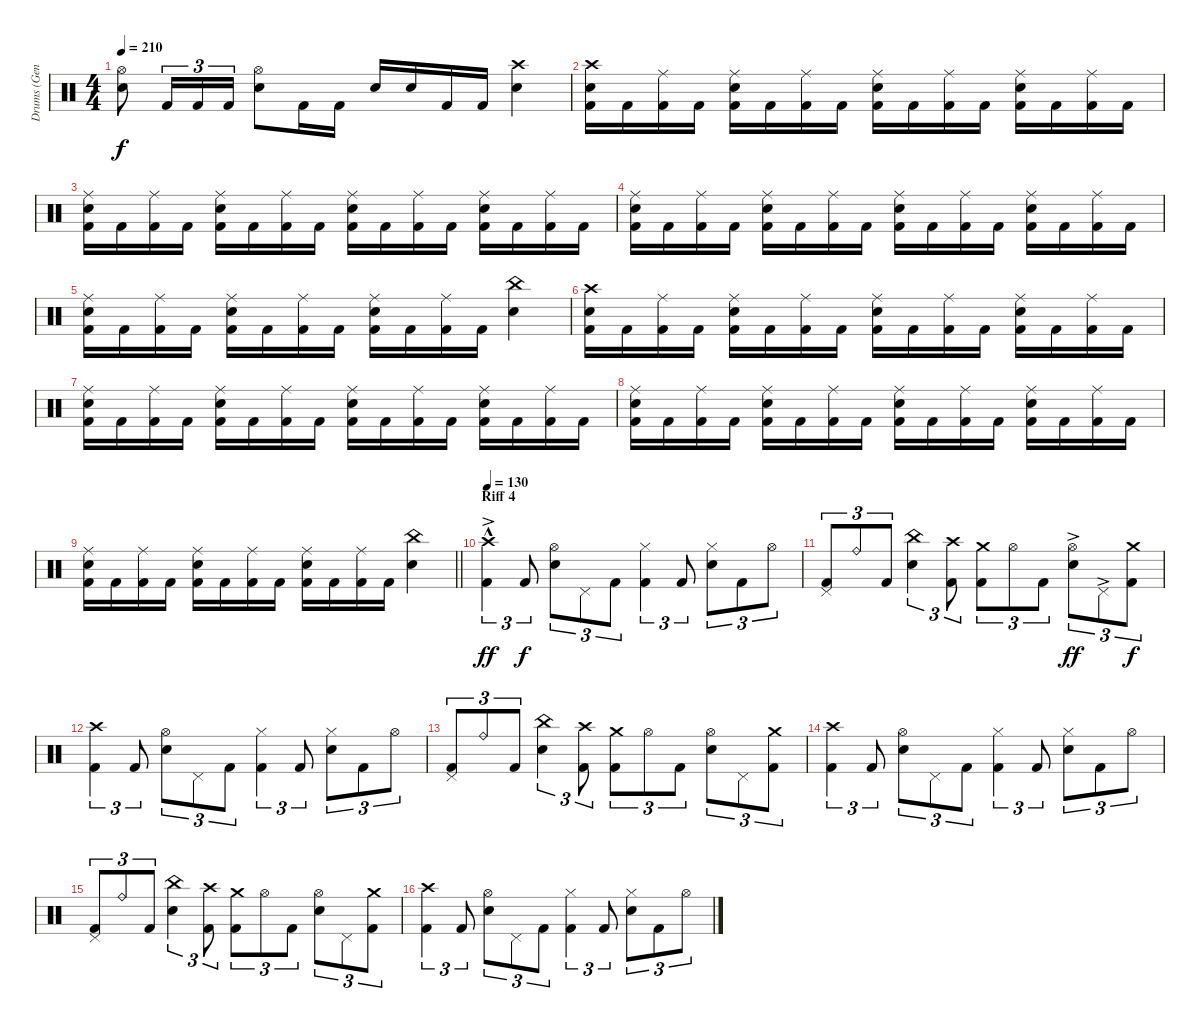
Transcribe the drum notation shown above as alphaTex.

\track ("Drums (Gene Hoglan)" "Drums (Gen") {instrument percussion}
\staff {score}
\articulation defaults
\ts (4 4)
\tempo 210
\clef neutral
\ks c
("Hi-Hat (open)" "Snare (hit) 2").8{dy f} "Kick (hit) 2".16{tu (3 2)} "Kick (hit) 2".16{tu (3 2)} "Kick (hit) 2".16{tu (3 2)} ("Hi-Hat (open)" "Snare (hit) 2").8 "Kick (hit) 2".16 "Kick (hit) 2".16 "Snare (hit) 2".16 "Snare (hit) 2".16 "Kick (hit) 2".16 "Kick (hit) 2".16 ("Crash high (hit)" "Snare (hit) 2").4 |
("Crash high (hit)" "Snare (hit) 2" "Kick (hit) 2").16 "Kick (hit) 2".16 ("Ride (middle)" "Kick (hit) 2").16 "Kick (hit) 2".16 ("Ride (middle)" "Snare (hit) 2" "Kick (hit) 2").16 "Kick (hit) 2".16 ("Ride (middle)" "Kick (hit) 2").16 "Kick (hit) 2".16 ("Ride (middle)" "Snare (hit) 2" "Kick (hit) 2").16 "Kick (hit) 2".16 ("Ride (middle)" "Kick (hit) 2").16 "Kick (hit) 2".16 ("Ride (middle)" "Snare (hit) 2" "Kick (hit) 2").16 "Kick (hit) 2".16 ("Ride (middle)" "Kick (hit) 2").16 "Kick (hit) 2".16 |
("Ride (middle)" "Snare (hit) 2" "Kick (hit) 2").16 "Kick (hit) 2".16 ("Ride (middle)" "Kick (hit) 2").16 "Kick (hit) 2".16 ("Ride (middle)" "Snare (hit) 2" "Kick (hit) 2").16 "Kick (hit) 2".16 ("Ride (middle)" "Kick (hit) 2").16 "Kick (hit) 2".16 ("Ride (middle)" "Snare (hit) 2" "Kick (hit) 2").16 "Kick (hit) 2".16 ("Ride (middle)" "Kick (hit) 2").16 "Kick (hit) 2".16 ("Ride (middle)" "Snare (hit) 2" "Kick (hit) 2").16 "Kick (hit) 2".16 ("Ride (middle)" "Kick (hit) 2").16 "Kick (hit) 2".16 |
("Ride (middle)" "Snare (hit) 2" "Kick (hit) 2").16 "Kick (hit) 2".16 ("Ride (middle)" "Kick (hit) 2").16 "Kick (hit) 2".16 ("Ride (middle)" "Snare (hit) 2" "Kick (hit) 2").16 "Kick (hit) 2".16 ("Ride (middle)" "Kick (hit) 2").16 "Kick (hit) 2".16 ("Ride (middle)" "Snare (hit) 2" "Kick (hit) 2").16 "Kick (hit) 2".16 ("Ride (middle)" "Kick (hit) 2").16 "Kick (hit) 2".16 ("Ride (middle)" "Snare (hit) 2" "Kick (hit) 2").16 "Kick (hit) 2".16 ("Ride (middle)" "Kick (hit) 2").16 "Kick (hit) 2".16 |
("Ride (middle)" "Snare (hit) 2" "Kick (hit) 2").16 "Kick (hit) 2".16 ("Ride (middle)" "Kick (hit) 2").16 "Kick (hit) 2".16 ("Ride (middle)" "Snare (hit) 2" "Kick (hit) 2").16 "Kick (hit) 2".16 ("Ride (middle)" "Kick (hit) 2").16 "Kick (hit) 2".16 ("Ride (middle)" "Snare (hit) 2" "Kick (hit) 2").16 "Kick (hit) 2".16 ("Ride (middle)" "Kick (hit) 2").16 "Kick (hit) 2".16 ("China (hit)" "Snare (hit) 2").4 |
("Crash high (hit)" "Snare (hit) 2" "Kick (hit) 2").16 "Kick (hit) 2".16 ("Ride (middle)" "Kick (hit) 2").16 "Kick (hit) 2".16 ("Ride (middle)" "Snare (hit) 2" "Kick (hit) 2").16 "Kick (hit) 2".16 ("Ride (middle)" "Kick (hit) 2").16 "Kick (hit) 2".16 ("Ride (middle)" "Snare (hit) 2" "Kick (hit) 2").16 "Kick (hit) 2".16 ("Ride (middle)" "Kick (hit) 2").16 "Kick (hit) 2".16 ("Ride (middle)" "Snare (hit) 2" "Kick (hit) 2").16 "Kick (hit) 2".16 ("Ride (middle)" "Kick (hit) 2").16 "Kick (hit) 2".16 |
("Ride (middle)" "Snare (hit) 2" "Kick (hit) 2").16 "Kick (hit) 2".16 ("Ride (middle)" "Kick (hit) 2").16 "Kick (hit) 2".16 ("Ride (middle)" "Snare (hit) 2" "Kick (hit) 2").16 "Kick (hit) 2".16 ("Ride (middle)" "Kick (hit) 2").16 "Kick (hit) 2".16 ("Ride (middle)" "Snare (hit) 2" "Kick (hit) 2").16 "Kick (hit) 2".16 ("Ride (middle)" "Kick (hit) 2").16 "Kick (hit) 2".16 ("Ride (middle)" "Snare (hit) 2" "Kick (hit) 2").16 "Kick (hit) 2".16 ("Ride (middle)" "Kick (hit) 2").16 "Kick (hit) 2".16 |
("Ride (middle)" "Snare (hit) 2" "Kick (hit) 2").16 "Kick (hit) 2".16 ("Ride (middle)" "Kick (hit) 2").16 "Kick (hit) 2".16 ("Ride (middle)" "Snare (hit) 2" "Kick (hit) 2").16 "Kick (hit) 2".16 ("Ride (middle)" "Kick (hit) 2").16 "Kick (hit) 2".16 ("Ride (middle)" "Snare (hit) 2" "Kick (hit) 2").16 "Kick (hit) 2".16 ("Ride (middle)" "Kick (hit) 2").16 "Kick (hit) 2".16 ("Ride (middle)" "Snare (hit) 2" "Kick (hit) 2").16 "Kick (hit) 2".16 ("Ride (middle)" "Kick (hit) 2").16 "Kick (hit) 2".16 |
\barLineRight lightlight
("Ride (middle)" "Snare (hit) 2" "Kick (hit) 2").16 "Kick (hit) 2".16 ("Ride (middle)" "Kick (hit) 2").16 "Kick (hit) 2".16 ("Ride (middle)" "Snare (hit) 2" "Kick (hit) 2").16 "Kick (hit) 2".16 ("Ride (middle)" "Kick (hit) 2").16 "Kick (hit) 2".16 ("Ride (middle)" "Snare (hit) 2" "Kick (hit) 2").16 "Kick (hit) 2".16 ("Ride (middle)" "Kick (hit) 2").16 "Kick (hit) 2".16 ("China (hit)" "Snare (hit) 2").4 |
\section ("" "Riff 4")
\tempo 130
("Crash high (hit)"{hac} "Kick (hit) 2"{ac}).4{tu (3 2) dy ff} "Kick (hit) 2".8{tu (3 2) dy f} ("Hi-Hat (open)" "Snare (hit) 2").8{tu (3 2)} "Pedal Hi-Hat (hit)".8{tu (3 2)} "Kick (hit) 2".8{tu (3 2)} ("Hi-Hat (closed)" "Kick (hit) 2").4{tu (3 2)} "Kick (hit) 2".8{tu (3 2)} ("Hi-Hat (closed)" "Snare (hit) 2").8{tu (3 2)} "Kick (hit) 2".8{tu (3 2)} "Hi-Hat (open)".8{tu (3 2)} |
("Pedal Hi-Hat (hit)" "Kick (hit) 2").8{tu (3 2)} "Ride (bell)".8{tu (3 2)} "Kick (hit) 2".8{tu (3 2)} ("China (hit)" "Snare (hit) 2").4{tu (3 2)} ("Crash high (hit)" "Kick (hit) 2").8{tu (3 2)} ("Crash medium (hit)" "Kick (hit) 2").8{tu (3 2)} "Hi-Hat (open)".8{tu (3 2)} "Kick (hit) 2".8{tu (3 2)} ("Hi-Hat (open)"{ac} "Snare (hit) 2").8{tu (3 2) dy ff} "Pedal Hi-Hat (hit)"{ac}.8{tu (3 2)} ("Crash medium (hit)" "Kick (hit) 2").8{tu (3 2) dy f} |
("Crash high (hit)" "Kick (hit) 2").4{tu (3 2)} "Kick (hit) 2".8{tu (3 2)} ("Hi-Hat (open)" "Snare (hit) 2").8{tu (3 2)} "Pedal Hi-Hat (hit)".8{tu (3 2)} "Kick (hit) 2".8{tu (3 2)} ("Hi-Hat (closed)" "Kick (hit) 2").4{tu (3 2)} "Kick (hit) 2".8{tu (3 2)} ("Hi-Hat (closed)" "Snare (hit) 2").8{tu (3 2)} "Kick (hit) 2".8{tu (3 2)} "Hi-Hat (open)".8{tu (3 2)} |
("Pedal Hi-Hat (hit)" "Kick (hit) 2").8{tu (3 2)} "Ride (bell)".8{tu (3 2)} "Kick (hit) 2".8{tu (3 2)} ("China (hit)" "Snare (hit) 2").4{tu (3 2)} ("Crash high (hit)" "Kick (hit) 2").8{tu (3 2)} ("Crash medium (hit)" "Kick (hit) 2").8{tu (3 2)} "Hi-Hat (open)".8{tu (3 2)} "Kick (hit) 2".8{tu (3 2)} ("Hi-Hat (open)" "Snare (hit) 2").8{tu (3 2)} "Pedal Hi-Hat (hit)".8{tu (3 2)} ("Crash medium (hit)" "Kick (hit) 2").8{tu (3 2)} |
("Crash high (hit)" "Kick (hit) 2").4{tu (3 2)} "Kick (hit) 2".8{tu (3 2)} ("Hi-Hat (open)" "Snare (hit) 2").8{tu (3 2)} "Pedal Hi-Hat (hit)".8{tu (3 2)} "Kick (hit) 2".8{tu (3 2)} ("Hi-Hat (closed)" "Kick (hit) 2").4{tu (3 2)} "Kick (hit) 2".8{tu (3 2)} ("Hi-Hat (closed)" "Snare (hit) 2").8{tu (3 2)} "Kick (hit) 2".8{tu (3 2)} "Hi-Hat (open)".8{tu (3 2)} |
("Pedal Hi-Hat (hit)" "Kick (hit) 2").8{tu (3 2)} "Ride (bell)".8{tu (3 2)} "Kick (hit) 2".8{tu (3 2)} ("China (hit)" "Snare (hit) 2").4{tu (3 2)} ("Crash high (hit)" "Kick (hit) 2").8{tu (3 2)} ("Crash medium (hit)" "Kick (hit) 2").8{tu (3 2)} "Hi-Hat (open)".8{tu (3 2)} "Kick (hit) 2".8{tu (3 2)} ("Hi-Hat (open)" "Snare (hit) 2").8{tu (3 2)} "Pedal Hi-Hat (hit)".8{tu (3 2)} ("Crash medium (hit)" "Kick (hit) 2").8{tu (3 2)} |
("Crash high (hit)" "Kick (hit) 2").4{tu (3 2)} "Kick (hit) 2".8{tu (3 2)} ("Hi-Hat (open)" "Snare (hit) 2").8{tu (3 2)} "Pedal Hi-Hat (hit)".8{tu (3 2)} "Kick (hit) 2".8{tu (3 2)} ("Hi-Hat (closed)" "Kick (hit) 2").4{tu (3 2)} "Kick (hit) 2".8{tu (3 2)} ("Hi-Hat (closed)" "Snare (hit) 2").8{tu (3 2)} "Kick (hit) 2".8{tu (3 2)} "Hi-Hat (open)".8{tu (3 2)}
